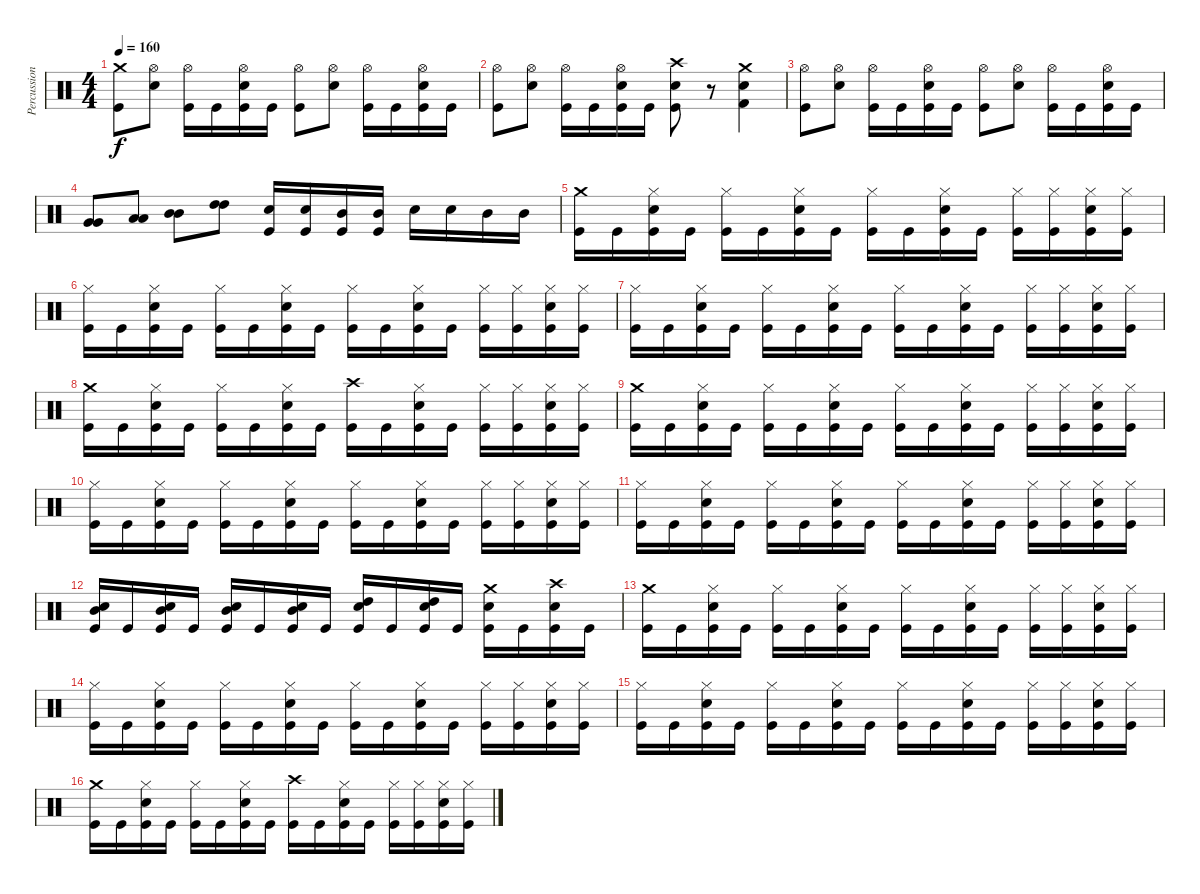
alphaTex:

\track ("Percussions" "Percussion") {instrument percussion}
\staff {score}
\articulation defaults
\ts (4 4)
\tempo 160
\clef neutral
\ks c
("Kick (hit)" "Crash medium (hit)").8{dy f} ("Snare (hit) 2" "Hi-Hat (open)").8 ("Kick (hit)" "Hi-Hat (open)").16 "Kick (hit)".16 ("Kick (hit)" "Snare (hit) 2" "Hi-Hat (open)").16 "Kick (hit)".16 ("Kick (hit)" "Hi-Hat (open)").8 ("Snare (hit) 2" "Hi-Hat (open)").8 ("Kick (hit)" "Hi-Hat (open)").16 "Kick (hit)".16 ("Kick (hit)" "Snare (hit) 2" "Hi-Hat (open)").16 "Kick (hit)".16 |
("Kick (hit)" "Hi-Hat (open)").8 ("Snare (hit) 2" "Hi-Hat (open)").8 ("Kick (hit)" "Hi-Hat (open)").16 "Kick (hit)".16 ("Kick (hit)" "Snare (hit) 2" "Hi-Hat (open)").16 "Kick (hit)".16 ("Kick (hit)" "Snare (hit) 2" "Crash high (hit)").8 r.8 ("Kick (hit) 2" "Electric Snare (hit)" "Crash medium (hit)").4 |
("Kick (hit)" "Hi-Hat (open)").8 ("Snare (hit) 2" "Hi-Hat (open)").8 ("Kick (hit)" "Hi-Hat (open)").16 "Kick (hit)".16 ("Kick (hit)" "Snare (hit) 2" "Hi-Hat (open)").16 "Kick (hit)".16 ("Kick (hit)" "Hi-Hat (open)").8 ("Snare (hit) 2" "Hi-Hat (open)").8 ("Kick (hit)" "Hi-Hat (open)").16 "Kick (hit)".16 ("Kick (hit)" "Snare (hit) 2" "Hi-Hat (open)").16 "Kick (hit)".16 |
("Very Low Tom (hit)" "Very Low Tom (hit)").8 ("Low Tom (hit)" "Low Tom (hit)").8 ("Mid Tom (hit)" "Mid Tom (hit)").8 ("High Tom (hit)" "High Tom (hit)").8 ("Snare (hit) 2" "Kick (hit)").16 ("Snare (hit) 2" "Kick (hit)").16 ("Mid Tom (hit)" "Kick (hit)").16 ("Mid Tom (hit)" "Kick (hit)").16 "Snare (hit) 2".16 "Snare (hit) 2".16 "Mid Tom (hit)".16 "Mid Tom (hit)".16 |
("Kick (hit)" "Crash medium (hit)").16 "Kick (hit)".16 ("Kick (hit)" "Snare (hit) 2" "Hi-Hat (closed)").16 "Kick (hit)".16 ("Kick (hit)" "Hi-Hat (closed)").16 "Kick (hit)".16 ("Kick (hit)" "Snare (hit) 2" "Hi-Hat (closed)").16 "Kick (hit)".16 ("Kick (hit)" "Hi-Hat (closed)").16 "Kick (hit)".16 ("Kick (hit)" "Snare (hit) 2" "Hi-Hat (closed)").16 "Kick (hit)".16 ("Kick (hit)" "Hi-Hat (closed)").16 ("Kick (hit)" "Hi-Hat (closed)").16 ("Kick (hit)" "Snare (hit) 2" "Hi-Hat (closed)").16 ("Kick (hit)" "Hi-Hat (closed)").16 |
("Kick (hit)" "Hi-Hat (closed)").16 "Kick (hit)".16 ("Kick (hit)" "Snare (hit) 2" "Hi-Hat (closed)").16 "Kick (hit)".16 ("Kick (hit)" "Hi-Hat (closed)").16 "Kick (hit)".16 ("Kick (hit)" "Snare (hit) 2" "Hi-Hat (closed)").16 "Kick (hit)".16 ("Kick (hit)" "Hi-Hat (closed)").16 "Kick (hit)".16 ("Kick (hit)" "Snare (hit) 2" "Hi-Hat (closed)").16 "Kick (hit)".16 ("Kick (hit)" "Hi-Hat (closed)").16 ("Kick (hit)" "Hi-Hat (closed)").16 ("Kick (hit)" "Snare (hit) 2" "Hi-Hat (closed)").16 ("Kick (hit)" "Hi-Hat (closed)").16 |
("Kick (hit)" "Hi-Hat (closed)").16 "Kick (hit)".16 ("Kick (hit)" "Snare (hit) 2" "Hi-Hat (closed)").16 "Kick (hit)".16 ("Kick (hit)" "Hi-Hat (closed)").16 "Kick (hit)".16 ("Kick (hit)" "Snare (hit) 2" "Hi-Hat (closed)").16 "Kick (hit)".16 ("Kick (hit)" "Hi-Hat (closed)").16 "Kick (hit)".16 ("Kick (hit)" "Snare (hit) 2" "Hi-Hat (closed)").16 "Kick (hit)".16 ("Kick (hit)" "Hi-Hat (closed)").16 ("Kick (hit)" "Hi-Hat (closed)").16 ("Kick (hit)" "Snare (hit) 2" "Hi-Hat (closed)").16 ("Kick (hit)" "Hi-Hat (closed)").16 |
("Kick (hit)" "Crash medium (hit)").16 "Kick (hit)".16 ("Kick (hit)" "Snare (hit) 2" "Hi-Hat (closed)").16 "Kick (hit)".16 ("Kick (hit)" "Hi-Hat (closed)").16 "Kick (hit)".16 ("Kick (hit)" "Snare (hit) 2" "Hi-Hat (closed)").16 "Kick (hit)".16 ("Kick (hit)" "Crash high (hit)").16 "Kick (hit)".16 ("Kick (hit)" "Snare (hit) 2" "Hi-Hat (closed)").16 "Kick (hit)".16 ("Kick (hit)" "Hi-Hat (closed)").16 ("Kick (hit)" "Hi-Hat (closed)").16 ("Kick (hit)" "Snare (hit) 2" "Hi-Hat (closed)").16 ("Kick (hit)" "Hi-Hat (closed)").16 |
("Kick (hit)" "Crash medium (hit)").16 "Kick (hit)".16 ("Kick (hit)" "Snare (hit) 2" "Hi-Hat (closed)").16 "Kick (hit)".16 ("Kick (hit)" "Hi-Hat (closed)").16 "Kick (hit)".16 ("Kick (hit)" "Snare (hit) 2" "Hi-Hat (closed)").16 "Kick (hit)".16 ("Kick (hit)" "Hi-Hat (closed)").16 "Kick (hit)".16 ("Kick (hit)" "Snare (hit) 2" "Hi-Hat (closed)").16 "Kick (hit)".16 ("Kick (hit)" "Hi-Hat (closed)").16 ("Kick (hit)" "Hi-Hat (closed)").16 ("Kick (hit)" "Snare (hit) 2" "Hi-Hat (closed)").16 ("Kick (hit)" "Hi-Hat (closed)").16 |
("Kick (hit)" "Hi-Hat (closed)").16 "Kick (hit)".16 ("Kick (hit)" "Snare (hit) 2" "Hi-Hat (closed)").16 "Kick (hit)".16 ("Kick (hit)" "Hi-Hat (closed)").16 "Kick (hit)".16 ("Kick (hit)" "Snare (hit) 2" "Hi-Hat (closed)").16 "Kick (hit)".16 ("Kick (hit)" "Hi-Hat (closed)").16 "Kick (hit)".16 ("Kick (hit)" "Snare (hit) 2" "Hi-Hat (closed)").16 "Kick (hit)".16 ("Kick (hit)" "Hi-Hat (closed)").16 ("Kick (hit)" "Hi-Hat (closed)").16 ("Kick (hit)" "Snare (hit) 2" "Hi-Hat (closed)").16 ("Kick (hit)" "Hi-Hat (closed)").16 |
("Kick (hit)" "Hi-Hat (closed)").16 "Kick (hit)".16 ("Kick (hit)" "Snare (hit) 2" "Hi-Hat (closed)").16 "Kick (hit)".16 ("Kick (hit)" "Hi-Hat (closed)").16 "Kick (hit)".16 ("Kick (hit)" "Snare (hit) 2" "Hi-Hat (closed)").16 "Kick (hit)".16 ("Kick (hit)" "Hi-Hat (closed)").16 "Kick (hit)".16 ("Kick (hit)" "Snare (hit) 2" "Hi-Hat (closed)").16 "Kick (hit)".16 ("Kick (hit)" "Hi-Hat (closed)").16 ("Kick (hit)" "Hi-Hat (closed)").16 ("Kick (hit)" "Snare (hit) 2" "Hi-Hat (closed)").16 ("Kick (hit)" "Hi-Hat (closed)").16 |
("Kick (hit)" "Snare (hit) 2" "Mid Tom (hit)").16 "Kick (hit)".16 ("Kick (hit)" "Snare (hit) 2" "Mid Tom (hit)").16 "Kick (hit)".16 ("Kick (hit)" "Snare (hit) 2" "Mid Tom (hit)").16 "Kick (hit)".16 ("Kick (hit)" "Snare (hit) 2" "Mid Tom (hit)").16 "Kick (hit)".16 ("Kick (hit)" "Electric Snare (hit)" "High Tom (hit)").16 "Kick (hit)".16 ("Kick (hit)" "Electric Snare (hit)" "High Tom (hit)").16 "Kick (hit)".16 ("Kick (hit)" "Electric Snare (hit)" "Crash medium (hit)").16 "Kick (hit)".16 ("Kick (hit)" "Snare (hit) 2" "Crash high (hit)").16 "Kick (hit)".16 |
("Kick (hit)" "Crash medium (hit)").16 "Kick (hit)".16 ("Kick (hit)" "Snare (hit) 2" "Hi-Hat (closed)").16 "Kick (hit)".16 ("Kick (hit)" "Hi-Hat (closed)").16 "Kick (hit)".16 ("Kick (hit)" "Snare (hit) 2" "Hi-Hat (closed)").16 "Kick (hit)".16 ("Kick (hit)" "Hi-Hat (closed)").16 "Kick (hit)".16 ("Kick (hit)" "Snare (hit) 2" "Hi-Hat (closed)").16 "Kick (hit)".16 ("Kick (hit)" "Hi-Hat (closed)").16 ("Kick (hit)" "Hi-Hat (closed)").16 ("Kick (hit)" "Snare (hit) 2" "Hi-Hat (closed)").16 ("Kick (hit)" "Hi-Hat (closed)").16 |
("Kick (hit)" "Hi-Hat (closed)").16 "Kick (hit)".16 ("Kick (hit)" "Snare (hit) 2" "Hi-Hat (closed)").16 "Kick (hit)".16 ("Kick (hit)" "Hi-Hat (closed)").16 "Kick (hit)".16 ("Kick (hit)" "Snare (hit) 2" "Hi-Hat (closed)").16 "Kick (hit)".16 ("Kick (hit)" "Hi-Hat (closed)").16 "Kick (hit)".16 ("Kick (hit)" "Snare (hit) 2" "Hi-Hat (closed)").16 "Kick (hit)".16 ("Kick (hit)" "Hi-Hat (closed)").16 ("Kick (hit)" "Hi-Hat (closed)").16 ("Kick (hit)" "Snare (hit) 2" "Hi-Hat (closed)").16 ("Kick (hit)" "Hi-Hat (closed)").16 |
("Kick (hit)" "Hi-Hat (closed)").16 "Kick (hit)".16 ("Kick (hit)" "Snare (hit) 2" "Hi-Hat (closed)").16 "Kick (hit)".16 ("Kick (hit)" "Hi-Hat (closed)").16 "Kick (hit)".16 ("Kick (hit)" "Snare (hit) 2" "Hi-Hat (closed)").16 "Kick (hit)".16 ("Kick (hit)" "Hi-Hat (closed)").16 "Kick (hit)".16 ("Kick (hit)" "Snare (hit) 2" "Hi-Hat (closed)").16 "Kick (hit)".16 ("Kick (hit)" "Hi-Hat (closed)").16 ("Kick (hit)" "Hi-Hat (closed)").16 ("Kick (hit)" "Snare (hit) 2" "Hi-Hat (closed)").16 ("Kick (hit)" "Hi-Hat (closed)").16 |
("Kick (hit)" "Crash medium (hit)").16 "Kick (hit)".16 ("Kick (hit)" "Snare (hit) 2" "Hi-Hat (closed)").16 "Kick (hit)".16 ("Kick (hit)" "Hi-Hat (closed)").16 "Kick (hit)".16 ("Kick (hit)" "Snare (hit) 2" "Hi-Hat (closed)").16 "Kick (hit)".16 ("Kick (hit)" "Crash high (hit)").16 "Kick (hit)".16 ("Kick (hit)" "Snare (hit) 2" "Hi-Hat (closed)").16 "Kick (hit)".16 ("Kick (hit)" "Hi-Hat (closed)").16 ("Kick (hit)" "Hi-Hat (closed)").16 ("Kick (hit)" "Snare (hit) 2" "Hi-Hat (closed)").16 ("Kick (hit)" "Hi-Hat (closed)").16
